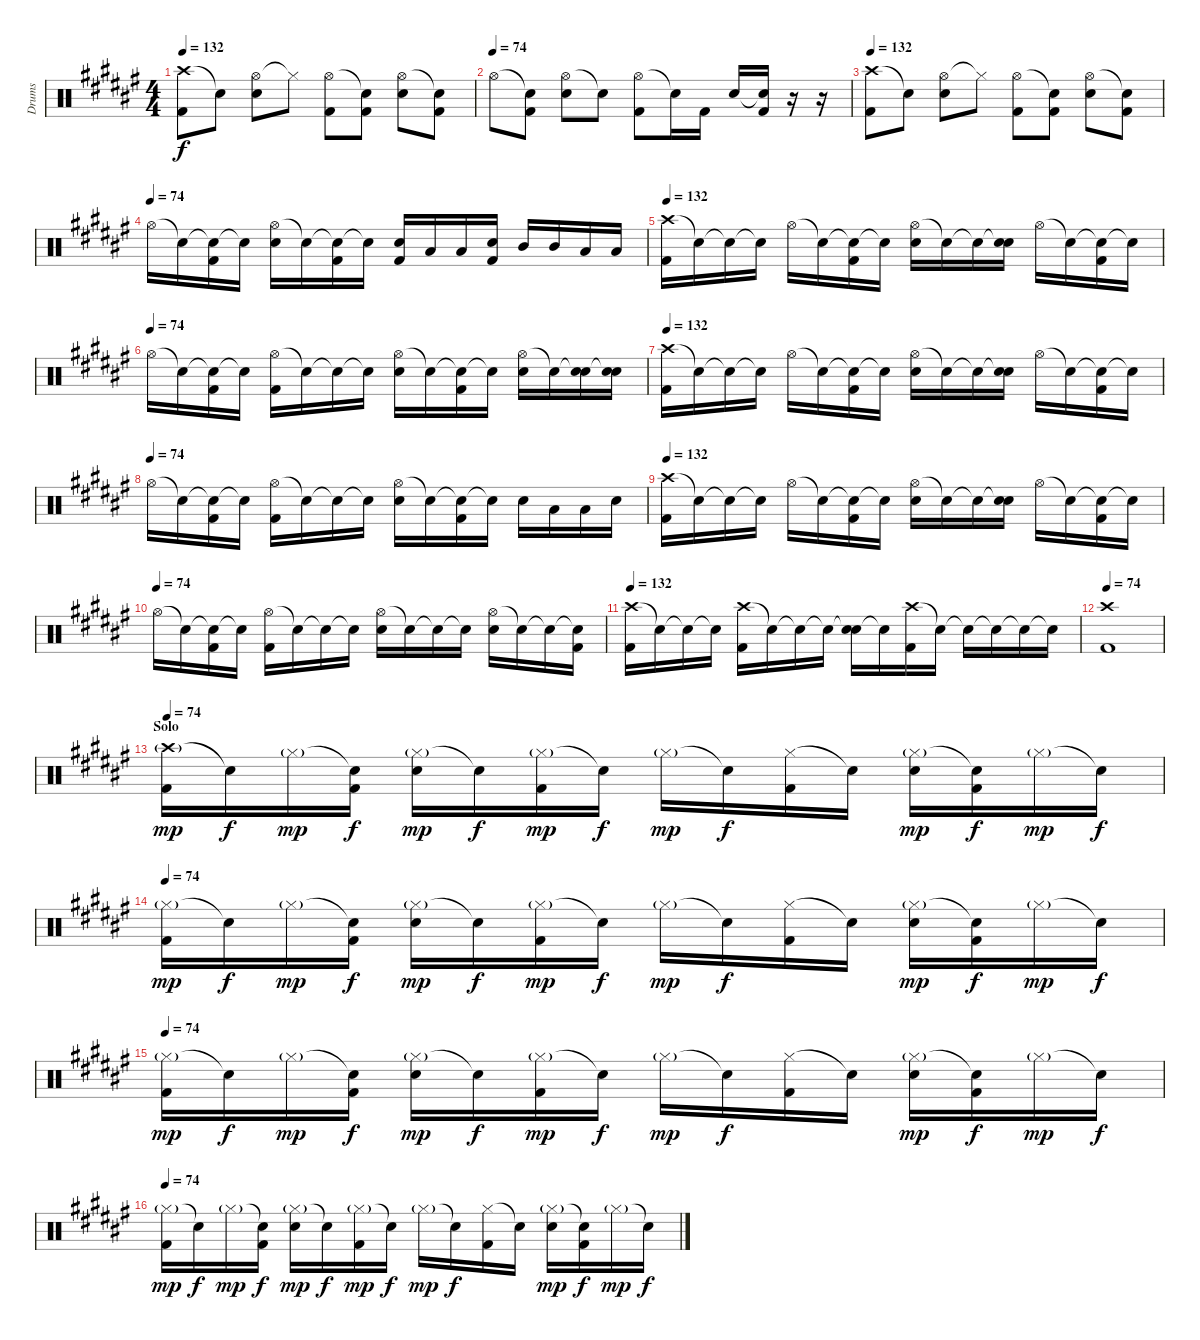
\track ("Drums" "Drums") {instrument percussion}
\staff {score}
\articulation defaults
\ts (4 4)
\tempo 74
\tempo 132
\clef neutral
\ks f#
("Crash high (hit)" "Kick (hit) 2").8{dy f} "Snare (hit)"{t}.8 ("Hi-Hat (open)" "Electric Snare (hit)").8 "Hi-Hat (closed)"{t}.8 ("Hi-Hat (open)" "Kick (hit) 2").8 ("Snare (hit)"{t} "Kick (hit) 2").8 ("Hi-Hat (open)" "Electric Snare (hit)").8 ("Snare (hit)"{t} "Kick (hit) 2").8 |
\tempo (74)
"Hi-Hat (open)".8 ("Snare (hit)"{t} "Kick (hit) 2").8 ("Hi-Hat (open)" "Electric Snare (hit)").8 "Snare (hit)"{t}.8 ("Hi-Hat (open)" "Kick (hit) 2").8 "Snare (hit)"{t}.16 "Kick (hit) 2".16 "Electric Snare (hit)".16 ("Snare (hit)"{t} "Kick (hit) 2").16 r.16 r.16 |
\tempo 74
\tempo 132
("Crash high (hit)" "Kick (hit) 2").8 "Snare (hit)"{t}.8 ("Hi-Hat (open)" "Electric Snare (hit)").8 "Hi-Hat (closed)"{t}.8 ("Hi-Hat (open)" "Kick (hit) 2").8 ("Snare (hit)"{t} "Kick (hit) 2").8 ("Hi-Hat (open)" "Electric Snare (hit)").8 ("Snare (hit)"{t} "Kick (hit) 2").8 |
\tempo (74)
"Hi-Hat (open)".16 "Snare (hit)"{t}.16 ("Snare (hit)"{t} "Kick (hit) 2").16 "Snare (hit)"{t}.16 ("Hi-Hat (open)" "Electric Snare (hit)").16 "Snare (hit)"{t}.16 ("Snare (hit)"{t} "Kick (hit) 2").16 "Snare (hit)"{t}.16 ("Electric Snare (hit)" "Kick (hit) 2").16 "Low Tom (hit)".16 "Low Tom (hit)".16 ("Electric Snare (hit)" "Kick (hit) 2").16 "Mid Tom (hit)".16 "Mid Tom (hit)".16 "Low Floor Tom (hit)".16 "Low Floor Tom (hit)".16 |
\tempo 74
\tempo 132
("Crash high (hit)" "Kick (hit) 2").16 "Snare (hit)"{t}.16 "Snare (hit)"{t}.16 "Snare (hit)"{t}.16 "Hi-Hat (open)".16 "Snare (hit)"{t}.16 ("Snare (hit)"{t} "Kick (hit) 2").16 "Snare (hit)"{t}.16 ("Hi-Hat (open)" "Electric Snare (hit)").16 "Snare (hit)"{t}.16 "Snare (hit)"{t}.16 ("Snare (hit)"{t} "Electric Snare (hit)").16 "Hi-Hat (open)".16 "Snare (hit)"{t}.16 ("Snare (hit)"{t} "Kick (hit) 2").16 "Snare (hit)"{t}.16 |
\tempo (74)
"Hi-Hat (open)".16 "Snare (hit)"{t}.16 ("Snare (hit)"{t} "Kick (hit) 2").16 "Snare (hit)"{t}.16 ("Hi-Hat (open)" "Kick (hit) 2").16 "Snare (hit)"{t}.16 "Snare (hit)"{t}.16 "Snare (hit)"{t}.16 ("Hi-Hat (open)" "Electric Snare (hit)").16 "Snare (hit)"{t}.16 ("Snare (hit)"{t} "Kick (hit) 2").16 "Snare (hit)"{t}.16 ("Hi-Hat (open)" "Electric Snare (hit)").16 "Snare (hit)"{t}.16 ("Snare (hit)"{t} "Electric Snare (hit)").16 ("Snare (hit)"{t} "Electric Snare (hit)").16 |
\tempo 74
\tempo 132
("Crash high (hit)" "Kick (hit) 2").16 "Snare (hit)"{t}.16 "Snare (hit)"{t}.16 "Snare (hit)"{t}.16 "Hi-Hat (open)".16 "Snare (hit)"{t}.16 ("Snare (hit)"{t} "Kick (hit) 2").16 "Snare (hit)"{t}.16 ("Hi-Hat (open)" "Electric Snare (hit)").16 "Snare (hit)"{t}.16 "Snare (hit)"{t}.16 ("Snare (hit)"{t} "Electric Snare (hit)").16 "Hi-Hat (open)".16 "Snare (hit)"{t}.16 ("Snare (hit)"{t} "Kick (hit) 2").16 "Snare (hit)"{t}.16 |
\tempo (74)
"Hi-Hat (open)".16 "Snare (hit)"{t}.16 ("Snare (hit)"{t} "Kick (hit) 2").16 "Snare (hit)"{t}.16 ("Hi-Hat (open)" "Kick (hit) 2").16 "Snare (hit)"{t}.16 "Snare (hit)"{t}.16 "Snare (hit)"{t}.16 ("Hi-Hat (open)" "Electric Snare (hit)").16 "Snare (hit)"{t}.16 ("Snare (hit)"{t} "Kick (hit) 2").16 "Snare (hit)"{t}.16 "Electric Snare (hit)".16 "Low Tom (hit)".16 "Low Tom (hit)".16 "Electric Snare (hit)".16 |
\tempo 74
\tempo 132
("Crash high (hit)" "Kick (hit) 2").16 "Snare (hit)"{t}.16 "Snare (hit)"{t}.16 "Snare (hit)"{t}.16 "Hi-Hat (open)".16 "Snare (hit)"{t}.16 ("Snare (hit)"{t} "Kick (hit) 2").16 "Snare (hit)"{t}.16 ("Hi-Hat (open)" "Electric Snare (hit)").16 "Snare (hit)"{t}.16 "Snare (hit)"{t}.16 ("Snare (hit)"{t} "Electric Snare (hit)").16 "Hi-Hat (open)".16 "Snare (hit)"{t}.16 ("Snare (hit)"{t} "Kick (hit) 2").16 "Snare (hit)"{t}.16 |
\tempo (74)
"Hi-Hat (open)".16 "Snare (hit)"{t}.16 ("Snare (hit)"{t} "Kick (hit) 2").16 "Snare (hit)"{t}.16 ("Hi-Hat (open)" "Kick (hit) 2").16 "Snare (hit)"{t}.16 "Snare (hit)"{t}.16 "Snare (hit)"{t}.16 ("Hi-Hat (open)" "Electric Snare (hit)").16 "Snare (hit)"{t}.16 "Snare (hit)"{t}.16 "Snare (hit)"{t}.16 ("Hi-Hat (open)" "Electric Snare (hit)").16 "Snare (hit)"{t}.16 "Snare (hit)"{t}.16 ("Snare (hit)"{t} "Kick (hit) 2").16 |
\tempo 74
\tempo 132
("Crash high (hit)" "Kick (hit) 2").16 "Snare (hit)"{t}.16 "Snare (hit)"{t}.16 "Snare (hit)"{t}.16 ("Crash high (hit)" "Kick (hit) 2").16 "Snare (hit)"{t}.16 "Snare (hit)"{t}.16 "Snare (hit)"{t}.16 ("Snare (hit)"{t} "Electric Snare (hit)").16 "Snare (hit)"{t}.16 ("Crash high (hit)" "Kick (hit) 2").16 "Snare (hit)"{t}.16 "Snare (hit)"{t}.16 "Snare (hit)"{t}.16 "Snare (hit)"{t}.16 "Snare (hit)"{t}.16 |
\tempo 74
("Crash high (hit)" "Kick (hit) 2").1 |
\section ("" "Solo")
\tempo 74
("Crash high (hit)"{g} "Kick (hit) 2").16{dy mp} "Snare (hit)"{t}.16{dy f} "Hi-Hat (closed)"{g}.16{dy mp} ("Snare (hit)"{t} "Kick (hit) 2").16{dy f} ("Hi-Hat (closed)"{g} "Electric Snare (hit)").16{dy mp} "Snare (hit)"{t}.16{dy f} ("Hi-Hat (closed)"{g} "Kick (hit) 2").16{dy mp} "Snare (hit)"{t}.16{dy f} "Hi-Hat (closed)"{g}.16{dy mp} "Snare (hit)"{t}.16{dy f} ("Hi-Hat (closed)" "Kick (hit) 2").16 "Snare (hit)"{t}.16 ("Hi-Hat (closed)"{g} "Electric Snare (hit)").16{dy mp} ("Snare (hit)"{t} "Kick (hit) 2").16{dy f} "Hi-Hat (closed)"{g}.16{dy mp} "Snare (hit)"{t}.16{dy f} |
\tempo 74
("Hi-Hat (closed)"{g} "Kick (hit) 2").16{dy mp} "Snare (hit)"{t}.16{dy f} "Hi-Hat (closed)"{g}.16{dy mp} ("Snare (hit)"{t} "Kick (hit) 2").16{dy f} ("Hi-Hat (closed)"{g} "Electric Snare (hit)").16{dy mp} "Snare (hit)"{t}.16{dy f} ("Hi-Hat (closed)"{g} "Kick (hit) 2").16{dy mp} "Snare (hit)"{t}.16{dy f} "Hi-Hat (closed)"{g}.16{dy mp} "Snare (hit)"{t}.16{dy f} ("Hi-Hat (closed)" "Kick (hit) 2").16 "Snare (hit)"{t}.16 ("Hi-Hat (closed)"{g} "Electric Snare (hit)").16{dy mp} ("Snare (hit)"{t} "Kick (hit) 2").16{dy f} "Hi-Hat (closed)"{g}.16{dy mp} "Snare (hit)"{t}.16{dy f} |
\tempo 74
("Hi-Hat (closed)"{g} "Kick (hit) 2").16{dy mp} "Snare (hit)"{t}.16{dy f} "Hi-Hat (closed)"{g}.16{dy mp} ("Snare (hit)"{t} "Kick (hit) 2").16{dy f} ("Hi-Hat (closed)"{g} "Electric Snare (hit)").16{dy mp} "Snare (hit)"{t}.16{dy f} ("Hi-Hat (closed)"{g} "Kick (hit) 2").16{dy mp} "Snare (hit)"{t}.16{dy f} "Hi-Hat (closed)"{g}.16{dy mp} "Snare (hit)"{t}.16{dy f} ("Hi-Hat (closed)" "Kick (hit) 2").16 "Snare (hit)"{t}.16 ("Hi-Hat (closed)"{g} "Electric Snare (hit)").16{dy mp} ("Snare (hit)"{t} "Kick (hit) 2").16{dy f} "Hi-Hat (closed)"{g}.16{dy mp} "Snare (hit)"{t}.16{dy f} |
\tempo 74
("Hi-Hat (closed)"{g} "Kick (hit) 2").16{dy mp} "Snare (hit)"{t}.16{dy f} "Hi-Hat (closed)"{g}.16{dy mp} ("Snare (hit)"{t} "Kick (hit) 2").16{dy f} ("Hi-Hat (closed)"{g} "Electric Snare (hit)").16{dy mp} "Snare (hit)"{t}.16{dy f} ("Hi-Hat (closed)"{g} "Kick (hit) 2").16{dy mp} "Snare (hit)"{t}.16{dy f} "Hi-Hat (closed)"{g}.16{dy mp} "Snare (hit)"{t}.16{dy f} ("Hi-Hat (closed)" "Kick (hit) 2").16 "Snare (hit)"{t}.16 ("Hi-Hat (closed)"{g} "Electric Snare (hit)").16{dy mp} ("Snare (hit)"{t} "Kick (hit) 2").16{dy f} "Hi-Hat (closed)"{g}.16{dy mp} "Snare (hit)"{t}.16{dy f}
